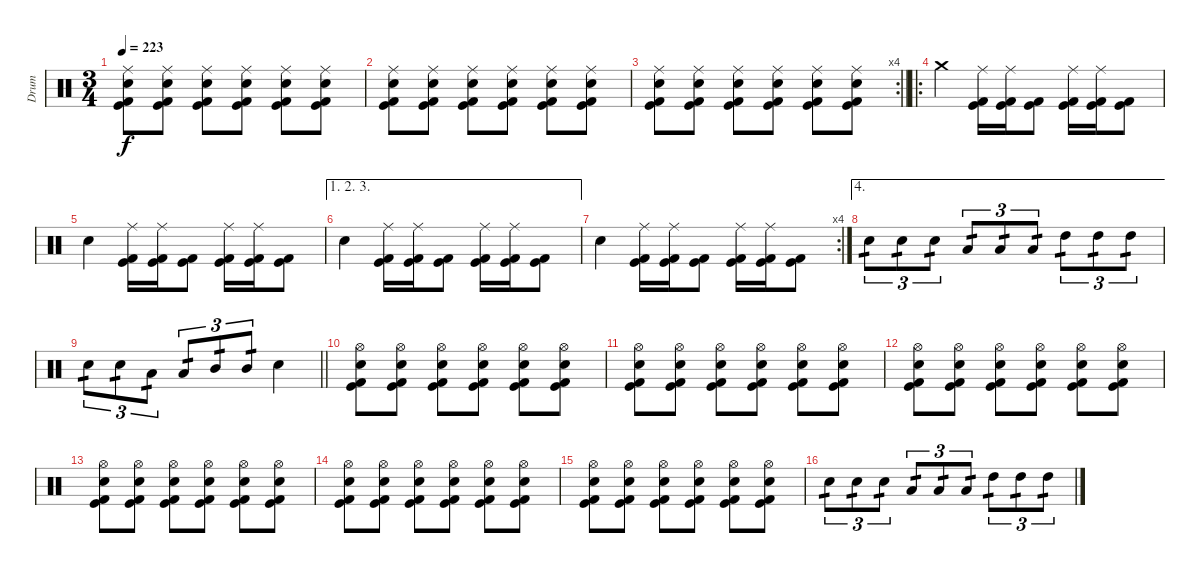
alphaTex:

\track ("Drum" "Drum") {instrument percussion}
\staff {score}
\articulation defaults
\ts (3 4)
\tempo 223
\clef neutral
\ks c
("Ride (middle)" "Electric Snare (hit)" "Kick (hit)" "Kick (hit) 2").8{dy f} ("Ride (middle)" "Electric Snare (hit)" "Kick (hit)" "Kick (hit) 2").8 ("Ride (middle)" "Electric Snare (hit)" "Kick (hit)" "Kick (hit) 2").8 ("Ride (middle)" "Electric Snare (hit)" "Kick (hit)" "Kick (hit) 2").8 ("Ride (middle)" "Electric Snare (hit)" "Kick (hit)" "Kick (hit) 2").8 ("Ride (middle)" "Electric Snare (hit)" "Kick (hit)" "Kick (hit) 2").8 |
("Ride (middle)" "Electric Snare (hit)" "Kick (hit)" "Kick (hit) 2").8 ("Ride (middle)" "Electric Snare (hit)" "Kick (hit)" "Kick (hit) 2").8 ("Ride (middle)" "Electric Snare (hit)" "Kick (hit)" "Kick (hit) 2").8 ("Ride (middle)" "Electric Snare (hit)" "Kick (hit)" "Kick (hit) 2").8 ("Ride (middle)" "Electric Snare (hit)" "Kick (hit)" "Kick (hit) 2").8 ("Ride (middle)" "Electric Snare (hit)" "Kick (hit)" "Kick (hit) 2").8 |
\rc 4
\barLineRight lightlight
("Ride (middle)" "Electric Snare (hit)" "Kick (hit)" "Kick (hit) 2").8 ("Ride (middle)" "Electric Snare (hit)" "Kick (hit)" "Kick (hit) 2").8 ("Ride (middle)" "Electric Snare (hit)" "Kick (hit)" "Kick (hit) 2").8 ("Ride (middle)" "Electric Snare (hit)" "Kick (hit)" "Kick (hit) 2").8 ("Ride (middle)" "Electric Snare (hit)" "Kick (hit)" "Kick (hit) 2").8 ("Ride (middle)" "Electric Snare (hit)" "Kick (hit)" "Kick (hit) 2").8 |
\ro "Crash medium (hit)".4
("Ride (middle)" "Kick (hit)" "Kick (hit) 2").16 ("Ride (middle)" "Kick (hit)" "Kick (hit) 2").16 ("Kick (hit)" "Kick (hit) 2").8 ("Ride (middle)" "Kick (hit)" "Kick (hit) 2").16 ("Ride (middle)" "Kick (hit)" "Kick (hit) 2").16 ("Kick (hit)" "Kick (hit) 2").8 |
"Electric Snare (hit)".4 ("Ride (middle)" "Kick (hit)" "Kick (hit) 2").16 ("Ride (middle)" "Kick (hit)" "Kick (hit) 2").16 ("Kick (hit)" "Kick (hit) 2").8 ("Ride (middle)" "Kick (hit)" "Kick (hit) 2").16 ("Ride (middle)" "Kick (hit)" "Kick (hit) 2").16 ("Kick (hit)" "Kick (hit) 2").8 |
\ae (1 2 3)
"Electric Snare (hit)".4 ("Ride (middle)" "Kick (hit)" "Kick (hit) 2").16 ("Ride (middle)" "Kick (hit)" "Kick (hit) 2").16 ("Kick (hit)" "Kick (hit) 2").8 ("Ride (middle)" "Kick (hit)" "Kick (hit) 2").16 ("Ride (middle)" "Kick (hit)" "Kick (hit) 2").16 ("Kick (hit)" "Kick (hit) 2").8 |
\rc 4 "Electric Snare (hit)".4
("Ride (middle)" "Kick (hit)" "Kick (hit) 2").16 ("Ride (middle)" "Kick (hit)" "Kick (hit) 2").16 ("Kick (hit)" "Kick (hit) 2").8 ("Ride (middle)" "Kick (hit)" "Kick (hit) 2").16 ("Ride (middle)" "Kick (hit)" "Kick (hit) 2").16 ("Kick (hit)" "Kick (hit) 2").8 |
\ae 4 "Electric Snare (hit)".8{tu (3 2) tp 1} "Electric Snare (hit)".8{tu (3 2) tp 1} "Electric Snare (hit)".8{tu (3 2) tp 1} "Low Tom (hit)".8{tu (3 2) tp 1} "Low Tom (hit)".8{tu (3 2) tp 1} "Low Tom (hit)".8{tu (3 2) tp 1} "High Tom (hit)".8{tu (3 2) tp 1} "High Tom (hit)".8{tu (3 2) tp 1} "High Tom (hit)".8{tu (3 2) tp 1}
|
\barLineRight lightlight "Electric Snare (hit)".8{tu (3 2) tp 1} "Electric Snare (hit)".8{tu (3 2) tp 1} "Low Tom (hit)".8{tu (3 2) tp 1} "Low Tom (hit)".8{tu (3 2) tp 1} "Mid Tom (hit)".8{tu (3 2) tp 1} "Mid Tom (hit)".8{tu (3 2) tp 1} "Electric Snare (hit)".4
|
("Hi-Hat (open)" "Electric Snare (hit)" "Kick (hit)" "Kick (hit) 2").8 ("Hi-Hat (open)" "Electric Snare (hit)" "Kick (hit)" "Kick (hit) 2").8 ("Hi-Hat (open)" "Electric Snare (hit)" "Kick (hit)" "Kick (hit) 2").8 ("Hi-Hat (open)" "Electric Snare (hit)" "Kick (hit)" "Kick (hit) 2").8 ("Hi-Hat (open)" "Electric Snare (hit)" "Kick (hit)" "Kick (hit) 2").8 ("Hi-Hat (open)" "Electric Snare (hit)" "Kick (hit)" "Kick (hit) 2").8 |
("Hi-Hat (open)" "Electric Snare (hit)" "Kick (hit)" "Kick (hit) 2").8 ("Hi-Hat (open)" "Electric Snare (hit)" "Kick (hit)" "Kick (hit) 2").8 ("Hi-Hat (open)" "Electric Snare (hit)" "Kick (hit)" "Kick (hit) 2").8 ("Hi-Hat (open)" "Electric Snare (hit)" "Kick (hit)" "Kick (hit) 2").8 ("Hi-Hat (open)" "Electric Snare (hit)" "Kick (hit)" "Kick (hit) 2").8 ("Hi-Hat (open)" "Electric Snare (hit)" "Kick (hit)" "Kick (hit) 2").8 |
("Hi-Hat (open)" "Electric Snare (hit)" "Kick (hit)" "Kick (hit) 2").8 ("Hi-Hat (open)" "Electric Snare (hit)" "Kick (hit)" "Kick (hit) 2").8 ("Hi-Hat (open)" "Electric Snare (hit)" "Kick (hit)" "Kick (hit) 2").8 ("Hi-Hat (open)" "Electric Snare (hit)" "Kick (hit)" "Kick (hit) 2").8 ("Hi-Hat (open)" "Electric Snare (hit)" "Kick (hit)" "Kick (hit) 2").8 ("Hi-Hat (open)" "Electric Snare (hit)" "Kick (hit)" "Kick (hit) 2").8 |
("Hi-Hat (open)" "Electric Snare (hit)" "Kick (hit)" "Kick (hit) 2").8 ("Hi-Hat (open)" "Electric Snare (hit)" "Kick (hit)" "Kick (hit) 2").8 ("Hi-Hat (open)" "Electric Snare (hit)" "Kick (hit)" "Kick (hit) 2").8 ("Hi-Hat (open)" "Electric Snare (hit)" "Kick (hit)" "Kick (hit) 2").8 ("Hi-Hat (open)" "Electric Snare (hit)" "Kick (hit)" "Kick (hit) 2").8 ("Hi-Hat (open)" "Electric Snare (hit)" "Kick (hit)" "Kick (hit) 2").8 |
("Hi-Hat (open)" "Electric Snare (hit)" "Kick (hit)" "Kick (hit) 2").8 ("Hi-Hat (open)" "Electric Snare (hit)" "Kick (hit)" "Kick (hit) 2").8 ("Hi-Hat (open)" "Electric Snare (hit)" "Kick (hit)" "Kick (hit) 2").8 ("Hi-Hat (open)" "Electric Snare (hit)" "Kick (hit)" "Kick (hit) 2").8 ("Hi-Hat (open)" "Electric Snare (hit)" "Kick (hit)" "Kick (hit) 2").8 ("Hi-Hat (open)" "Electric Snare (hit)" "Kick (hit)" "Kick (hit) 2").8 |
("Hi-Hat (open)" "Electric Snare (hit)" "Kick (hit)" "Kick (hit) 2").8 ("Hi-Hat (open)" "Electric Snare (hit)" "Kick (hit)" "Kick (hit) 2").8 ("Hi-Hat (open)" "Electric Snare (hit)" "Kick (hit)" "Kick (hit) 2").8 ("Hi-Hat (open)" "Electric Snare (hit)" "Kick (hit)" "Kick (hit) 2").8 ("Hi-Hat (open)" "Electric Snare (hit)" "Kick (hit)" "Kick (hit) 2").8 ("Hi-Hat (open)" "Electric Snare (hit)" "Kick (hit)" "Kick (hit) 2").8 |
"Electric Snare (hit)".8{tu (3 2) tp 1} "Electric Snare (hit)".8{tu (3 2) tp 1} "Electric Snare (hit)".8{tu (3 2) tp 1} "Low Tom (hit)".8{tu (3 2) tp 1} "Low Tom (hit)".8{tu (3 2) tp 1} "Low Tom (hit)".8{tu (3 2) tp 1} "High Tom (hit)".8{tu (3 2) tp 1} "High Tom (hit)".8{tu (3 2) tp 1} "High Tom (hit)".8{tu (3 2) tp 1}
